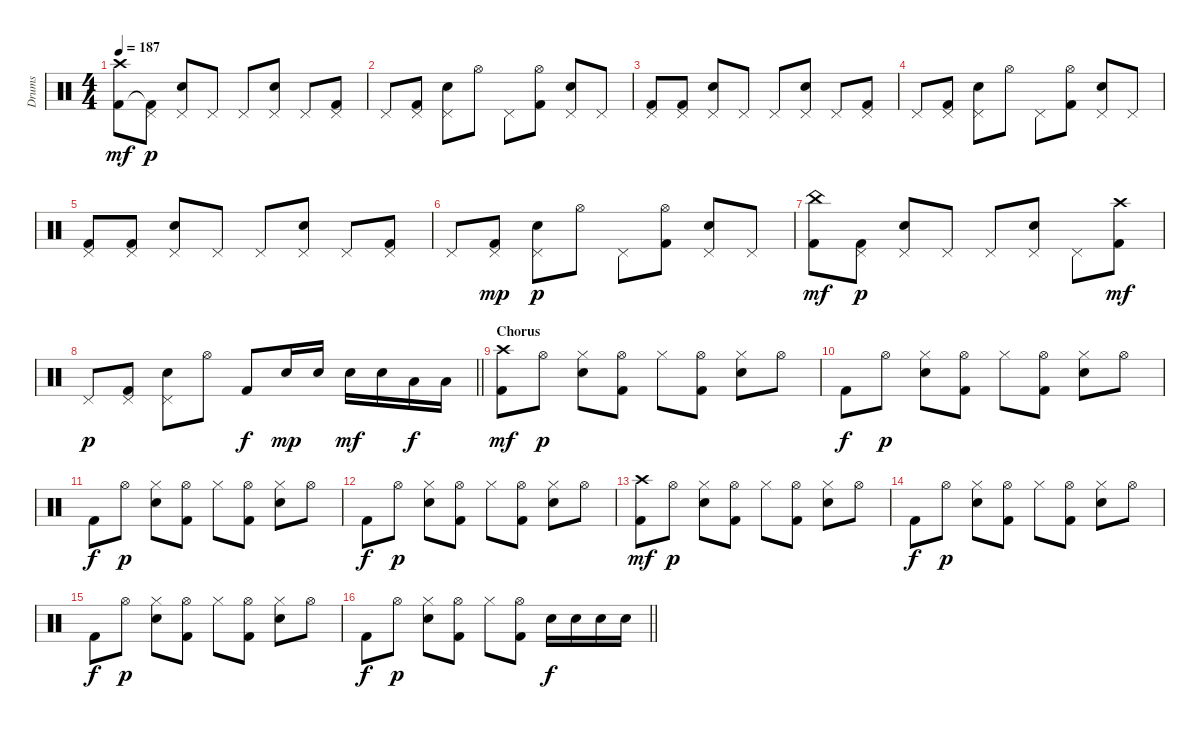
\track ("Drums" "Drums") {instrument percussion}
\staff {score}
\articulation defaults
\ts (4 4)
\tempo 187
\clef neutral
\ks c
("Crash high (hit)" "Kick (hit) 2").8{dy mf} ("Pedal Hi-Hat (hit)" "Kick (hit) 2"{t}).8{dy p} ("Pedal Hi-Hat (hit)" "Electric Snare (hit)").8 "Pedal Hi-Hat (hit)".8 "Pedal Hi-Hat (hit)".8 ("Pedal Hi-Hat (hit)" "Electric Snare (hit)").8 "Pedal Hi-Hat (hit)".8 ("Pedal Hi-Hat (hit)" "Kick (hit) 2").8 |
"Pedal Hi-Hat (hit)".8 ("Pedal Hi-Hat (hit)" "Kick (hit) 2").8 ("Pedal Hi-Hat (hit)" "Electric Snare (hit)").8 "Hi-Hat (open)".8 "Pedal Hi-Hat (hit)".8 ("Hi-Hat (open)" "Kick (hit) 2").8 ("Pedal Hi-Hat (hit)" "Electric Snare (hit)").8 "Pedal Hi-Hat (hit)".8 |
("Pedal Hi-Hat (hit)" "Kick (hit) 2").8 ("Pedal Hi-Hat (hit)" "Kick (hit) 2").8 ("Pedal Hi-Hat (hit)" "Electric Snare (hit)").8 "Pedal Hi-Hat (hit)".8 "Pedal Hi-Hat (hit)".8 ("Pedal Hi-Hat (hit)" "Electric Snare (hit)").8 "Pedal Hi-Hat (hit)".8 ("Pedal Hi-Hat (hit)" "Kick (hit) 2").8 |
"Pedal Hi-Hat (hit)".8 ("Pedal Hi-Hat (hit)" "Kick (hit) 2").8 ("Pedal Hi-Hat (hit)" "Electric Snare (hit)").8 "Hi-Hat (open)".8 "Pedal Hi-Hat (hit)".8 ("Hi-Hat (open)" "Kick (hit) 2").8 ("Pedal Hi-Hat (hit)" "Electric Snare (hit)").8 "Pedal Hi-Hat (hit)".8 |
("Pedal Hi-Hat (hit)" "Kick (hit) 2").8 ("Pedal Hi-Hat (hit)" "Kick (hit) 2").8 ("Pedal Hi-Hat (hit)" "Electric Snare (hit)").8 "Pedal Hi-Hat (hit)".8 "Pedal Hi-Hat (hit)".8 ("Pedal Hi-Hat (hit)" "Electric Snare (hit)").8 "Pedal Hi-Hat (hit)".8 ("Pedal Hi-Hat (hit)" "Kick (hit) 2").8 |
"Pedal Hi-Hat (hit)".8 ("Pedal Hi-Hat (hit)" "Kick (hit) 2").8{dy mp} ("Pedal Hi-Hat (hit)" "Electric Snare (hit)").8{dy p} "Hi-Hat (open)".8 "Pedal Hi-Hat (hit)".8 ("Hi-Hat (open)" "Kick (hit) 2").8 ("Pedal Hi-Hat (hit)" "Electric Snare (hit)").8 "Pedal Hi-Hat (hit)".8 |
("China (hit)" "Kick (hit) 2").8{dy mf} ("Pedal Hi-Hat (hit)" "Kick (hit) 2").8{dy p} ("Pedal Hi-Hat (hit)" "Electric Snare (hit)").8 "Pedal Hi-Hat (hit)".8 "Pedal Hi-Hat (hit)".8 ("Pedal Hi-Hat (hit)" "Electric Snare (hit)").8 "Pedal Hi-Hat (hit)".8 ("Crash high (hit)" "Kick (hit) 2").8{dy mf} |
\barLineRight lightlight "Pedal Hi-Hat (hit)".8{dy p}
("Pedal Hi-Hat (hit)" "Kick (hit) 2").8 ("Pedal Hi-Hat (hit)" "Electric Snare (hit)").8 "Hi-Hat (open)".8 "Kick (hit) 2".8{dy f} "Electric Snare (hit)".16{dy mp} "Electric Snare (hit)".16 "Electric Snare (hit)".16{dy mf} "Electric Snare (hit)".16 "Low Tom (hit)".16{dy f} "Low Tom (hit)".16 |
\section ("" "Chorus")
("Crash high (hit)" "Kick (hit) 2").8{dy mf} "Hi-Hat (open)".8{dy p} ("Hi-Hat (closed)" "Electric Snare (hit)").8 ("Hi-Hat (open)" "Kick (hit) 2").8 "Hi-Hat (closed)".8 ("Hi-Hat (open)" "Kick (hit) 2").8 ("Hi-Hat (closed)" "Electric Snare (hit)").8 "Hi-Hat (open)".8 |
"Kick (hit) 2".8{dy f} "Hi-Hat (open)".8{dy p} ("Hi-Hat (closed)" "Electric Snare (hit)").8 ("Hi-Hat (open)" "Kick (hit) 2").8 "Hi-Hat (closed)".8 ("Hi-Hat (open)" "Kick (hit) 2").8 ("Hi-Hat (closed)" "Electric Snare (hit)").8 "Hi-Hat (open)".8 |
"Kick (hit) 2".8{dy f} "Hi-Hat (open)".8{dy p} ("Hi-Hat (closed)" "Electric Snare (hit)").8 ("Hi-Hat (open)" "Kick (hit) 2").8 "Hi-Hat (closed)".8 ("Hi-Hat (open)" "Kick (hit) 2").8 ("Hi-Hat (closed)" "Electric Snare (hit)").8 "Hi-Hat (open)".8 |
"Kick (hit) 2".8{dy f} "Hi-Hat (open)".8{dy p} ("Hi-Hat (closed)" "Electric Snare (hit)").8 ("Hi-Hat (open)" "Kick (hit) 2").8 "Hi-Hat (closed)".8 ("Hi-Hat (open)" "Kick (hit) 2").8 ("Hi-Hat (closed)" "Electric Snare (hit)").8 "Hi-Hat (open)".8 |
("Crash high (hit)" "Kick (hit) 2").8{dy mf} "Hi-Hat (open)".8{dy p} ("Hi-Hat (closed)" "Electric Snare (hit)").8 ("Hi-Hat (open)" "Kick (hit) 2").8 "Hi-Hat (closed)".8 ("Hi-Hat (open)" "Kick (hit) 2").8 ("Hi-Hat (closed)" "Electric Snare (hit)").8 "Hi-Hat (open)".8 |
"Kick (hit) 2".8{dy f} "Hi-Hat (open)".8{dy p} ("Hi-Hat (closed)" "Electric Snare (hit)").8 ("Hi-Hat (open)" "Kick (hit) 2").8 "Hi-Hat (closed)".8 ("Hi-Hat (open)" "Kick (hit) 2").8 ("Hi-Hat (closed)" "Electric Snare (hit)").8 "Hi-Hat (open)".8 |
"Kick (hit) 2".8{dy f} "Hi-Hat (open)".8{dy p} ("Hi-Hat (closed)" "Electric Snare (hit)").8 ("Hi-Hat (open)" "Kick (hit) 2").8 "Hi-Hat (closed)".8 ("Hi-Hat (open)" "Kick (hit) 2").8 ("Hi-Hat (closed)" "Electric Snare (hit)").8 "Hi-Hat (open)".8 |
\barLineRight lightlight "Kick (hit) 2".8{dy f} "Hi-Hat (open)".8{dy p}
("Hi-Hat (closed)" "Electric Snare (hit)").8 ("Hi-Hat (open)" "Kick (hit) 2").8 "Hi-Hat (closed)".8 ("Hi-Hat (open)" "Kick (hit) 2").8 "Electric Snare (hit)".16{dy f} "Electric Snare (hit)".16 "Electric Snare (hit)".16 "Electric Snare (hit)".16
